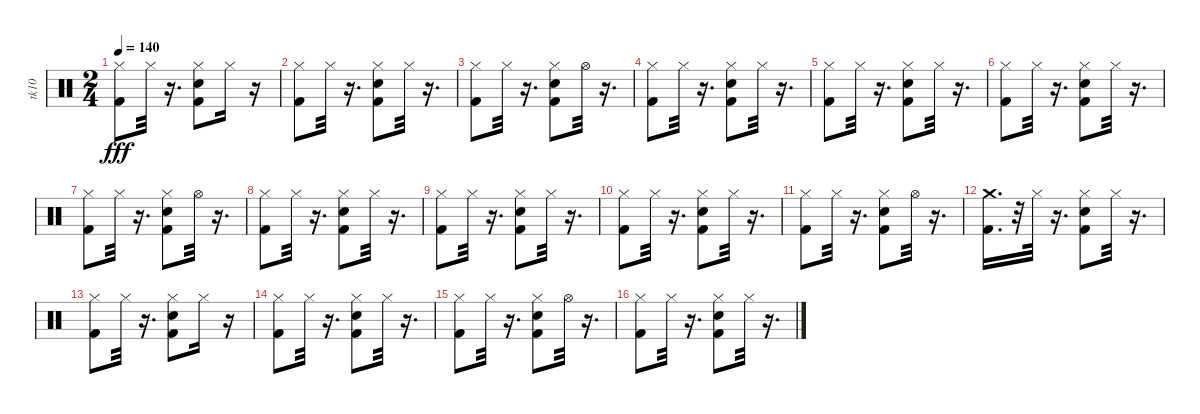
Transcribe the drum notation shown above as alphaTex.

\track ("tk10" "tk10") {instrument percussion}
\staff {score}
\articulation defaults
\ts (2 4)
\tempo 140
\clef neutral
\ks c
("Kick (hit) 2" "Hi-Hat (closed)").8{dy fff} "Hi-Hat (closed)".32 r.16{d} ("Snare (hit) 2" "Kick (hit) 2" "Hi-Hat (closed)").8 "Hi-Hat (closed)".16 r.16 |
("Kick (hit) 2" "Hi-Hat (closed)").8 "Hi-Hat (closed)".32 r.16{d} ("Snare (hit) 2" "Kick (hit) 2" "Hi-Hat (closed)").8 "Hi-Hat (closed)".32 r.16{d} |
("Kick (hit) 2" "Hi-Hat (closed)").8 "Hi-Hat (closed)".32 r.16{d} ("Kick (hit) 2" "Snare (hit) 2" "Hi-Hat (closed)").8 "Hi-Hat (open)".32 r.16{d} |
("Kick (hit) 2" "Hi-Hat (closed)").8 "Hi-Hat (closed)".32 r.16{d} ("Snare (hit) 2" "Kick (hit) 2" "Hi-Hat (closed)").8 "Hi-Hat (closed)".32 r.16{d} |
("Kick (hit) 2" "Hi-Hat (closed)").8 "Hi-Hat (closed)".32 r.16{d} ("Snare (hit) 2" "Kick (hit) 2" "Hi-Hat (closed)").8 "Hi-Hat (closed)".32 r.16{d} |
("Kick (hit) 2" "Hi-Hat (closed)").8 "Hi-Hat (closed)".32 r.16{d} ("Kick (hit) 2" "Hi-Hat (closed)" "Snare (hit) 2").8 "Hi-Hat (closed)".32 r.16{d} |
("Kick (hit) 2" "Hi-Hat (closed)").8 "Hi-Hat (closed)".32 r.16{d} ("Snare (hit) 2" "Kick (hit) 2" "Hi-Hat (closed)").8 "Hi-Hat (open)".32 r.16{d} |
("Kick (hit) 2" "Hi-Hat (closed)").8 "Hi-Hat (closed)".32 r.16{d} ("Snare (hit) 2" "Kick (hit) 2" "Hi-Hat (closed)").8 "Hi-Hat (closed)".32 r.16{d} |
("Kick (hit) 2" "Hi-Hat (closed)").8 "Hi-Hat (closed)".32 r.16{d} ("Snare (hit) 2" "Kick (hit) 2" "Hi-Hat (closed)").8 "Hi-Hat (closed)".32 r.16{d} |
("Kick (hit) 2" "Hi-Hat (closed)").8 "Hi-Hat (closed)".32 r.16{d} ("Snare (hit) 2" "Kick (hit) 2" "Hi-Hat (closed)").8 "Hi-Hat (closed)".32 r.16{d} |
("Kick (hit) 2" "Hi-Hat (closed)").8 "Hi-Hat (closed)".32 r.16{d} ("Snare (hit) 2" "Kick (hit) 2" "Hi-Hat (closed)").8 "Hi-Hat (open)".32 r.16{d} |
("Crash medium (hit)" "Kick (hit) 2").16{d} r.32 "Hi-Hat (closed)".32 r.16{d} ("Snare (hit) 2" "Hi-Hat (closed)" "Kick (hit) 2").8 "Hi-Hat (closed)".32 r.16{d} |
("Kick (hit) 2" "Hi-Hat (closed)").8 "Hi-Hat (closed)".32 r.16{d} ("Snare (hit) 2" "Kick (hit) 2" "Hi-Hat (closed)").8 "Hi-Hat (closed)".16 r.16 |
("Kick (hit) 2" "Hi-Hat (closed)").8 "Hi-Hat (closed)".32 r.16{d} ("Snare (hit) 2" "Kick (hit) 2" "Hi-Hat (closed)").8 "Hi-Hat (closed)".32 r.16{d} |
("Kick (hit) 2" "Hi-Hat (closed)").8 "Hi-Hat (closed)".32 r.16{d} ("Kick (hit) 2" "Snare (hit) 2" "Hi-Hat (closed)").8 "Hi-Hat (open)".32 r.16{d} |
("Kick (hit) 2" "Hi-Hat (closed)").8 "Hi-Hat (closed)".32 r.16{d} ("Hi-Hat (closed)" "Snare (hit) 2" "Kick (hit) 2").8 "Hi-Hat (closed)".32 r.16{d}
